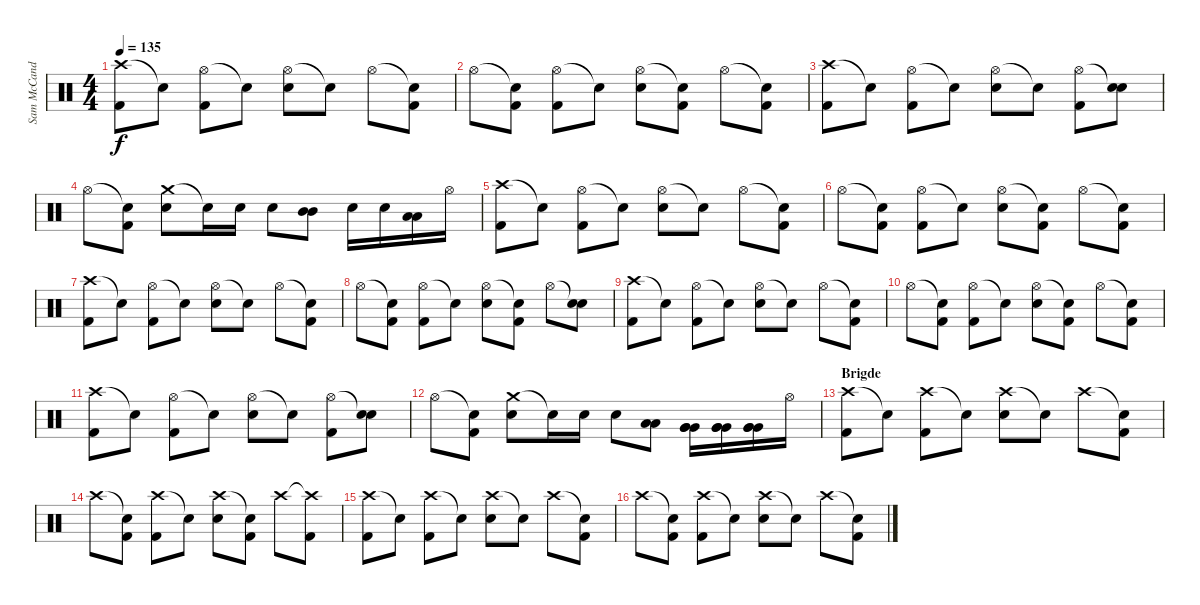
\track ("Sam McCandless (Drums)" "Sam McCand") {instrument percussion}
\staff {score}
\articulation defaults
\ts (4 4)
\tempo 135
\clef neutral
\ks c
("Crash high (hit)" "Kick (hit) 2").8{dy f} "Snare (hit)"{t}.8 ("Hi-Hat (open)" "Kick (hit) 2").8 "Snare (hit)"{t}.8 ("Hi-Hat (open)" "Electric Snare (hit)").8 "Snare (hit)"{t}.8 "Hi-Hat (open)".8 ("Snare (hit)"{t} "Kick (hit) 2").8 |
"Hi-Hat (open)".8 ("Snare (hit)"{t} "Kick (hit) 2").8 ("Hi-Hat (open)" "Kick (hit) 2").8 "Snare (hit)"{t}.8 ("Hi-Hat (open)" "Electric Snare (hit)").8 ("Snare (hit)"{t} "Kick (hit) 2").8 "Hi-Hat (open)".8 ("Snare (hit)"{t} "Kick (hit) 2").8 |
("Crash high (hit)" "Kick (hit) 2").8 "Snare (hit)"{t}.8 ("Hi-Hat (open)" "Kick (hit) 2").8 "Snare (hit)"{t}.8 ("Hi-Hat (open)" "Electric Snare (hit)").8 "Snare (hit)"{t}.8 ("Hi-Hat (open)" "Kick (hit) 2").8 ("Snare (hit)"{t} "Electric Snare (hit)").8 |
"Hi-Hat (open)".8 ("Snare (hit)"{t} "Kick (hit) 2").8 ("Crash medium (hit)" "Electric Snare (hit)").8 "Snare (hit)"{t}.16 "Electric Snare (hit)".16 "Electric Snare (hit)".8 ("Mid Tom (hit)" "Mid Tom (hit)").8 "Electric Snare (hit)".16 "Electric Snare (hit)".16 ("Low Tom (hit)" "Low Tom (hit)").16 "Hi-Hat (open)".16 |
("Crash high (hit)" "Kick (hit) 2").8 "Snare (hit)"{t}.8 ("Hi-Hat (open)" "Kick (hit) 2").8 "Snare (hit)"{t}.8 ("Hi-Hat (open)" "Electric Snare (hit)").8 "Snare (hit)"{t}.8 "Hi-Hat (open)".8 ("Snare (hit)"{t} "Kick (hit) 2").8 |
"Hi-Hat (open)".8 ("Snare (hit)"{t} "Kick (hit) 2").8 ("Hi-Hat (open)" "Kick (hit) 2").8 "Snare (hit)"{t}.8 ("Hi-Hat (open)" "Electric Snare (hit)").8 ("Snare (hit)"{t} "Kick (hit) 2").8 "Hi-Hat (open)".8 ("Snare (hit)"{t} "Kick (hit) 2").8 |
("Crash high (hit)" "Kick (hit) 2").8 "Snare (hit)"{t}.8 ("Hi-Hat (open)" "Kick (hit) 2").8 "Snare (hit)"{t}.8 ("Hi-Hat (open)" "Electric Snare (hit)").8 "Snare (hit)"{t}.8 "Hi-Hat (open)".8 ("Snare (hit)"{t} "Kick (hit) 2").8 |
"Hi-Hat (open)".8 ("Snare (hit)"{t} "Kick (hit) 2").8 ("Hi-Hat (open)" "Kick (hit) 2").8 "Snare (hit)"{t}.8 ("Hi-Hat (open)" "Electric Snare (hit)").8 ("Snare (hit)"{t} "Kick (hit) 2").8 "Hi-Hat (open)".8 ("Snare (hit)"{t} "Electric Snare (hit)").8 |
("Crash high (hit)" "Kick (hit) 2").8 "Snare (hit)"{t}.8 ("Hi-Hat (open)" "Kick (hit) 2").8 "Snare (hit)"{t}.8 ("Hi-Hat (open)" "Electric Snare (hit)").8 "Snare (hit)"{t}.8 "Hi-Hat (open)".8 ("Snare (hit)"{t} "Kick (hit) 2").8 |
"Hi-Hat (open)".8 ("Snare (hit)"{t} "Kick (hit) 2").8 ("Hi-Hat (open)" "Kick (hit) 2").8 "Snare (hit)"{t}.8 ("Hi-Hat (open)" "Electric Snare (hit)").8 ("Snare (hit)"{t} "Kick (hit) 2").8 "Hi-Hat (open)".8 ("Snare (hit)"{t} "Kick (hit) 2").8 |
("Crash high (hit)" "Kick (hit) 2").8 "Snare (hit)"{t}.8 ("Hi-Hat (open)" "Kick (hit) 2").8 "Snare (hit)"{t}.8 ("Hi-Hat (open)" "Electric Snare (hit)").8 "Snare (hit)"{t}.8 ("Hi-Hat (open)" "Kick (hit) 2").8 ("Snare (hit)"{t} "Electric Snare (hit)").8 |
"Hi-Hat (open)".8 ("Snare (hit)"{t} "Kick (hit) 2").8 ("Crash medium (hit)" "Electric Snare (hit)").8 "Snare (hit)"{t}.16 "Electric Snare (hit)".16 "Electric Snare (hit)".8 ("Low Tom (hit)" "Low Tom (hit)").8 ("Very Low Tom (hit)" "Very Low Tom (hit)" "Very Low Tom (hit)").16 ("Very Low Tom (hit)" "Very Low Tom (hit)" "Very Low Tom (hit)").16 ("Very Low Tom (hit)" "Very Low Tom (hit)" "Very Low Tom (hit)").16 "Hi-Hat (open)".16 |
\section ("" "Brigde")
("Crash high (hit)" "Kick (hit) 2").8 "Snare (hit)"{t}.8 ("Crash high (hit)" "Kick (hit) 2").8 "Snare (hit)"{t}.8 ("Crash high (hit)" "Electric Snare (hit)").8 "Snare (hit)"{t}.8 "Crash high (hit)".8 ("Snare (hit)"{t} "Kick (hit) 2").8 |
"Crash high (hit)".8 ("Snare (hit)"{t} "Kick (hit) 2").8 ("Crash high (hit)" "Kick (hit) 2").8 "Snare (hit)"{t}.8 ("Crash high (hit)" "Electric Snare (hit)").8 ("Snare (hit)"{t} "Kick (hit) 2").8 "Crash high (hit)".8 ("Crash high (hit)"{t} "Kick (hit) 2").8 |
("Crash high (hit)" "Kick (hit) 2").8 "Snare (hit)"{t}.8 ("Crash high (hit)" "Kick (hit) 2").8 "Snare (hit)"{t}.8 ("Crash high (hit)" "Electric Snare (hit)").8 "Snare (hit)"{t}.8 "Crash high (hit)".8 ("Snare (hit)"{t} "Kick (hit) 2").8 |
"Crash high (hit)".8 ("Snare (hit)"{t} "Kick (hit) 2").8 ("Crash high (hit)" "Kick (hit) 2").8 "Snare (hit)"{t}.8 ("Crash high (hit)" "Electric Snare (hit)").8 "Snare (hit)"{t}.8 "Crash high (hit)".8 ("Snare (hit)"{t} "Kick (hit) 2").8
